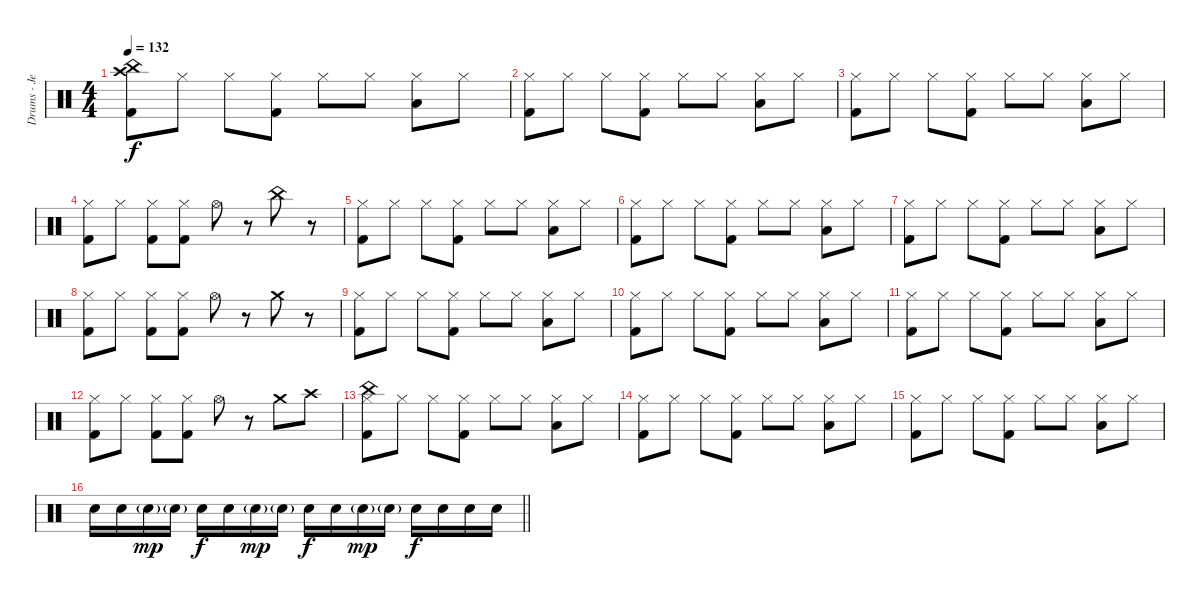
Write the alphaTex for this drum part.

\track ("Drums - Jeroen" "Drums - Je") {instrument percussion}
\staff {score}
\articulation defaults
\ts (4 4)
\tempo 132
\clef neutral
\ks c
("China (hit)" "Crash high (hit)" "Kick (hit) 2").8{dy f} "Hi-Hat (closed)".8 "Hi-Hat (closed)".8 ("Hi-Hat (closed)" "Kick (hit) 2").8 "Hi-Hat (closed)".8 "Hi-Hat (closed)".8 ("Low Floor Tom (hit)" "Hi-Hat (closed)").8 "Hi-Hat (closed)".8 |
("Hi-Hat (closed)" "Kick (hit) 2").8 "Hi-Hat (closed)".8 "Hi-Hat (closed)".8 ("Hi-Hat (closed)" "Kick (hit) 2").8 "Hi-Hat (closed)".8 "Hi-Hat (closed)".8 ("Low Floor Tom (hit)" "Hi-Hat (closed)").8 "Hi-Hat (closed)".8 |
("Hi-Hat (closed)" "Kick (hit) 2").8 "Hi-Hat (closed)".8 "Hi-Hat (closed)".8 ("Hi-Hat (closed)" "Kick (hit) 2").8 "Hi-Hat (closed)".8 "Hi-Hat (closed)".8 ("Low Floor Tom (hit)" "Hi-Hat (closed)").8 "Hi-Hat (closed)".8 |
("Hi-Hat (closed)" "Kick (hit) 2").8 "Hi-Hat (closed)".8 ("Hi-Hat (closed)" "Kick (hit) 2").8 ("Hi-Hat (closed)" "Kick (hit) 2").8 "Hi-Hat (open)".8 r.8 "China (hit)".8 r.8 |
("Hi-Hat (closed)" "Kick (hit) 2").8 "Hi-Hat (closed)".8 "Hi-Hat (closed)".8 ("Hi-Hat (closed)" "Kick (hit) 2").8 "Hi-Hat (closed)".8 "Hi-Hat (closed)".8 ("Low Floor Tom (hit)" "Hi-Hat (closed)").8 "Hi-Hat (closed)".8 |
("Hi-Hat (closed)" "Kick (hit) 2").8 "Hi-Hat (closed)".8 "Hi-Hat (closed)".8 ("Hi-Hat (closed)" "Kick (hit) 2").8 "Hi-Hat (closed)".8 "Hi-Hat (closed)".8 ("Low Floor Tom (hit)" "Hi-Hat (closed)").8 "Hi-Hat (closed)".8 |
("Hi-Hat (closed)" "Kick (hit) 2").8 "Hi-Hat (closed)".8 "Hi-Hat (closed)".8 ("Hi-Hat (closed)" "Kick (hit) 2").8 "Hi-Hat (closed)".8 "Hi-Hat (closed)".8 ("Low Floor Tom (hit)" "Hi-Hat (closed)").8 "Hi-Hat (closed)".8 |
("Hi-Hat (closed)" "Kick (hit) 2").8 "Hi-Hat (closed)".8 ("Hi-Hat (closed)" "Kick (hit) 2").8 ("Hi-Hat (closed)" "Kick (hit) 2").8 "Hi-Hat (open)".8 r.8 "Crash medium (hit)".8 r.8 |
("Hi-Hat (closed)" "Kick (hit) 2").8 "Hi-Hat (closed)".8 "Hi-Hat (closed)".8 ("Hi-Hat (closed)" "Kick (hit) 2").8 "Hi-Hat (closed)".8 "Hi-Hat (closed)".8 ("Low Floor Tom (hit)" "Hi-Hat (closed)").8 "Hi-Hat (closed)".8 |
("Hi-Hat (closed)" "Kick (hit) 2").8 "Hi-Hat (closed)".8 "Hi-Hat (closed)".8 ("Hi-Hat (closed)" "Kick (hit) 2").8 "Hi-Hat (closed)".8 "Hi-Hat (closed)".8 ("Low Floor Tom (hit)" "Hi-Hat (closed)").8 "Hi-Hat (closed)".8 |
("Hi-Hat (closed)" "Kick (hit) 2").8 "Hi-Hat (closed)".8 "Hi-Hat (closed)".8 ("Hi-Hat (closed)" "Kick (hit) 2").8 "Hi-Hat (closed)".8 "Hi-Hat (closed)".8 ("Low Floor Tom (hit)" "Hi-Hat (closed)").8 "Hi-Hat (closed)".8 |
("Hi-Hat (closed)" "Kick (hit) 2").8 "Hi-Hat (closed)".8 ("Hi-Hat (closed)" "Kick (hit) 2").8 ("Hi-Hat (closed)" "Kick (hit) 2").8 "Hi-Hat (open)".8 r.8 "Crash medium (hit)".8 "Crash high (hit)".8 |
("China (hit)" "Hi-Hat (closed)" "Kick (hit) 2").8 "Hi-Hat (closed)".8 "Hi-Hat (closed)".8 ("Hi-Hat (closed)" "Kick (hit) 2").8 "Hi-Hat (closed)".8 "Hi-Hat (closed)".8 ("Low Floor Tom (hit)" "Hi-Hat (closed)").8 "Hi-Hat (closed)".8 |
("Hi-Hat (closed)" "Kick (hit) 2").8 "Hi-Hat (closed)".8 "Hi-Hat (closed)".8 ("Hi-Hat (closed)" "Kick (hit) 2").8 "Hi-Hat (closed)".8 "Hi-Hat (closed)".8 ("Low Floor Tom (hit)" "Hi-Hat (closed)").8 "Hi-Hat (closed)".8 |
("Hi-Hat (closed)" "Kick (hit) 2").8 "Hi-Hat (closed)".8 "Hi-Hat (closed)".8 ("Hi-Hat (closed)" "Kick (hit) 2").8 "Hi-Hat (closed)".8 "Hi-Hat (closed)".8 ("Low Floor Tom (hit)" "Hi-Hat (closed)").8 "Hi-Hat (closed)".8 |
\barLineRight lightlight "Electric Snare (hit)".16 "Electric Snare (hit)".16 "Electric Snare (hit)"{g}.16{dy mp} "Electric Snare (hit)"{g}.16 "Electric Snare (hit)".16{dy f} "Electric Snare (hit)".16 "Electric Snare (hit)"{g}.16{dy mp} "Electric Snare (hit)"{g}.16 "Electric Snare (hit)".16{dy f} "Electric Snare (hit)".16 "Electric Snare (hit)"{g}.16{dy mp} "Electric Snare (hit)"{g}.16 "Electric Snare (hit)".16{dy f} "Electric Snare (hit)".16 "Electric Snare (hit)".16 "Electric Snare (hit)".16
